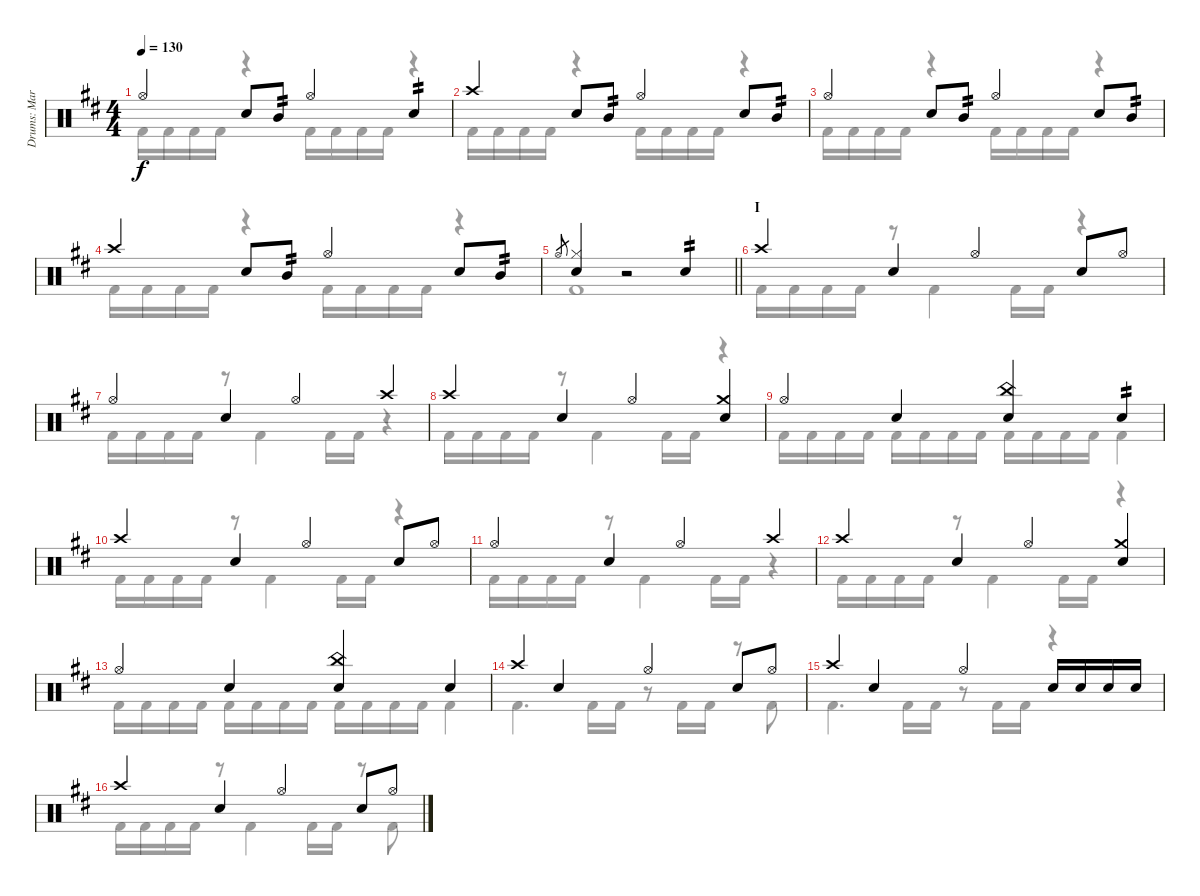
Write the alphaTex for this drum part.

\track ("Drums: Mark" "Drums: Mar") {instrument percussion}
\staff {score}
\articulation defaults
\voice
\ts (4 4)
\tempo 130
\clef neutral
\ks d "Hi-Hat (open)".4{dy f} "Snare (hit) 2".8 "Mid Tom (hit)".8{tp 2} "Hi-Hat (open)".4 "Snare (hit) 2".4{tp 2}
|
"Crash high (hit)".4 "Snare (hit) 2".8 "Mid Tom (hit)".8{tp 2} "Hi-Hat (open)".4 "Snare (hit) 2".8 "Mid Tom (hit)".8{tp 2} |
"Hi-Hat (open)".4 "Snare (hit) 2".8 "Mid Tom (hit)".8{tp 2} "Hi-Hat (open)".4 "Snare (hit) 2".8 "Mid Tom (hit)".8{tp 2} |
"Crash high (hit)".4 "Snare (hit) 2".8 "Mid Tom (hit)".8{tp 2} "Hi-Hat (open)".4 "Snare (hit) 2".8 "Mid Tom (hit)".8{tp 2} |
\barLineRight lightlight "Hi-Hat (open)".8{gr}
("Hi-Hat (closed)" "Snare (hit) 2").4 r.2 "Snare (hit) 2".4{tp 2} |
\section ("" "I")
"Crash high (hit)".4 "Snare (hit) 2".4 "Hi-Hat (open)".4 "Snare (hit) 2".8 "Hi-Hat (open)".8 |
"Hi-Hat (open)".4 "Snare (hit) 2".4 "Hi-Hat (open)".4 "Crash high (hit)".4 |
"Crash high (hit)".4 "Snare (hit) 2".4 "Hi-Hat (open)".4 ("Crash medium (hit)" "Snare (hit) 2").4 |
"Hi-Hat (open)".4 "Snare (hit) 2".4 ("China (hit)" "Snare (hit) 2").4 "Snare (hit) 2".4{tp 2} |
"Crash high (hit)".4 "Snare (hit) 2".4 "Hi-Hat (open)".4 "Snare (hit) 2".8 "Hi-Hat (open)".8 |
"Hi-Hat (open)".4 "Snare (hit) 2".4 "Hi-Hat (open)".4 "Crash high (hit)".4 |
"Crash high (hit)".4 "Snare (hit) 2".4 "Hi-Hat (open)".4 ("Crash medium (hit)" "Snare (hit) 2").4 |
"Hi-Hat (open)".4 "Snare (hit) 2".4 ("China (hit)" "Snare (hit) 2").4 "Snare (hit) 2".4 |
"Crash high (hit)".4 "Snare (hit) 2".4 "Hi-Hat (open)".4 "Snare (hit) 2".8 "Hi-Hat (open)".8 |
"Crash high (hit)".4 "Snare (hit) 2".4 "Hi-Hat (open)".4 "Snare (hit) 2".16 "Snare (hit) 2".16 "Snare (hit) 2".16 "Snare (hit) 2".16 |
"Crash high (hit)".4 "Snare (hit) 2".4 "Hi-Hat (open)".4 "Snare (hit) 2".8 "Hi-Hat (open)".8
\voice
\clef neutral
\ottava regular
\simile none
\ks d "Kick (hit) 2".16{dy f} "Kick (hit) 2".16 "Kick (hit) 2".16 "Kick (hit) 2".16
r.4 "Kick (hit) 2".16 "Kick (hit) 2".16 "Kick (hit) 2".16 "Kick (hit) 2".16 r.4 |
"Kick (hit) 2".16 "Kick (hit) 2".16 "Kick (hit) 2".16 "Kick (hit) 2".16 r.4 "Kick (hit) 2".16 "Kick (hit) 2".16 "Kick (hit) 2".16 "Kick (hit) 2".16 r.4 |
"Kick (hit) 2".16 "Kick (hit) 2".16 "Kick (hit) 2".16 "Kick (hit) 2".16 r.4 "Kick (hit) 2".16 "Kick (hit) 2".16 "Kick (hit) 2".16 "Kick (hit) 2".16 r.4 |
"Kick (hit) 2".16 "Kick (hit) 2".16 "Kick (hit) 2".16 "Kick (hit) 2".16 r.4 "Kick (hit) 2".16 "Kick (hit) 2".16 "Kick (hit) 2".16 "Kick (hit) 2".16 r.4 |
\barLineRight lightlight "Kick (hit) 2".1
|
"Kick (hit) 2".16 "Kick (hit) 2".16 "Kick (hit) 2".16 "Kick (hit) 2".16 r.8 "Kick (hit) 2".4 "Kick (hit) 2".16 "Kick (hit) 2".16 r.4 |
"Kick (hit) 2".16 "Kick (hit) 2".16 "Kick (hit) 2".16 "Kick (hit) 2".16 r.8 "Kick (hit) 2".4 "Kick (hit) 2".16 "Kick (hit) 2".16 r.4 |
"Kick (hit) 2".16 "Kick (hit) 2".16 "Kick (hit) 2".16 "Kick (hit) 2".16 r.8 "Kick (hit) 2".4 "Kick (hit) 2".16 "Kick (hit) 2".16 r.4 |
"Kick (hit) 2".16 "Kick (hit) 2".16 "Kick (hit) 2".16 "Kick (hit) 2".16 "Kick (hit) 2".16 "Kick (hit) 2".16 "Kick (hit) 2".16 "Kick (hit) 2".16 "Kick (hit) 2".16 "Kick (hit) 2".16 "Kick (hit) 2".16 "Kick (hit) 2".16 "Kick (hit) 2".4 |
"Kick (hit) 2".16 "Kick (hit) 2".16 "Kick (hit) 2".16 "Kick (hit) 2".16 r.8 "Kick (hit) 2".4 "Kick (hit) 2".16 "Kick (hit) 2".16 r.4 |
"Kick (hit) 2".16 "Kick (hit) 2".16 "Kick (hit) 2".16 "Kick (hit) 2".16 r.8 "Kick (hit) 2".4 "Kick (hit) 2".16 "Kick (hit) 2".16 r.4 |
"Kick (hit) 2".16 "Kick (hit) 2".16 "Kick (hit) 2".16 "Kick (hit) 2".16 r.8 "Kick (hit) 2".4 "Kick (hit) 2".16 "Kick (hit) 2".16 r.4 |
"Kick (hit) 2".16 "Kick (hit) 2".16 "Kick (hit) 2".16 "Kick (hit) 2".16 "Kick (hit) 2".16 "Kick (hit) 2".16 "Kick (hit) 2".16 "Kick (hit) 2".16 "Kick (hit) 2".16 "Kick (hit) 2".16 "Kick (hit) 2".16 "Kick (hit) 2".16 "Kick (hit) 2".4 |
"Kick (hit) 2".4{d} "Kick (hit) 2".16 "Kick (hit) 2".16 r.8 "Kick (hit) 2".16 "Kick (hit) 2".16 r.8 "Kick (hit) 2".8 |
"Kick (hit) 2".4{d} "Kick (hit) 2".16 "Kick (hit) 2".16 r.8 "Kick (hit) 2".16 "Kick (hit) 2".16 r.4 |
"Kick (hit) 2".16 "Kick (hit) 2".16 "Kick (hit) 2".16 "Kick (hit) 2".16 r.8 "Kick (hit) 2".4 "Kick (hit) 2".16 "Kick (hit) 2".16 r.8 "Kick (hit) 2".8
